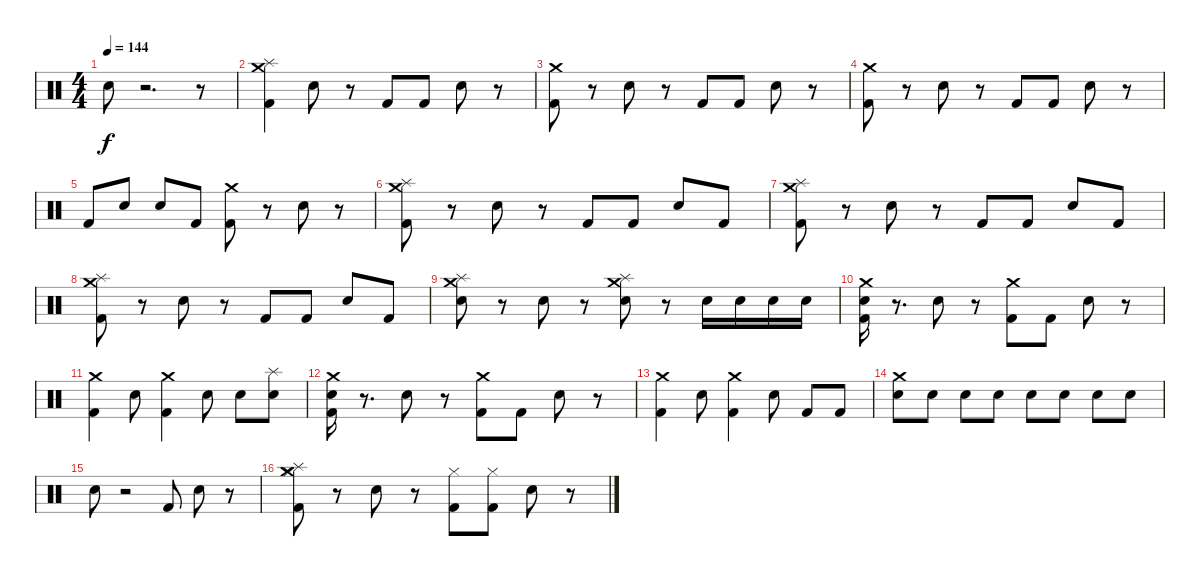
\track "" {instrument percussion}
\staff {score}
\articulation defaults
\ts (4 4)
\tempo 144
\clef neutral
\ks c "Electric Snare (hit)".8{dy f}
r.2{d} r.8 |
("Splash (hit)" "Crash medium (hit)" "Kick (hit) 2").4 "Snare (hit) 2".8 r.8 "Kick (hit) 2".8 "Kick (hit) 2".8 "Snare (hit) 2".8 r.8 |
("Crash medium (hit)" "Kick (hit) 2").8 r.8 "Snare (hit) 2".8 r.8 "Kick (hit) 2".8 "Kick (hit) 2".8 "Snare (hit) 2".8 r.8 |
("Crash medium (hit)" "Kick (hit) 2").8 r.8 "Snare (hit) 2".8 r.8 "Kick (hit) 2".8 "Kick (hit) 2".8 "Snare (hit) 2".8 r.8 |
"Kick (hit) 2".8 "Snare (hit) 2".8 "Snare (hit) 2".8 "Kick (hit) 2".8 ("Crash medium (hit)" "Kick (hit) 2").8 r.8 "Snare (hit) 2".8 r.8 |
("Splash (hit)" "Crash medium (hit)" "Kick (hit) 2").8 r.8 "Snare (hit) 2".8 r.8 "Kick (hit) 2".8 "Kick (hit) 2".8 "Snare (hit) 2".8 "Kick (hit) 2".8 |
("Crash medium (hit)" "Splash (hit)" "Kick (hit) 2").8 r.8 "Snare (hit) 2".8 r.8 "Kick (hit) 2".8 "Kick (hit) 2".8 "Snare (hit) 2".8 "Kick (hit) 2".8 |
("Crash medium (hit)" "Splash (hit)" "Kick (hit) 2").8 r.8 "Snare (hit) 2".8 r.8 "Kick (hit) 2".8 "Kick (hit) 2".8 "Snare (hit) 2".8 "Kick (hit) 2".8 |
("Crash medium (hit)" "Splash (hit)" "Snare (hit) 2").8 r.8 "Snare (hit) 2".8 r.8 ("Crash medium (hit)" "Splash (hit)" "Snare (hit) 2").8 r.8 "Snare (hit) 2".16 "Snare (hit) 2".16 "Snare (hit) 2".16 "Snare (hit) 2".16 |
("Crash medium (hit)" "Kick (hit) 2" "Snare (hit) 2").16 r.8{d} "Snare (hit) 2".8 r.8 ("Crash medium (hit)" "Kick (hit) 2").8 "Kick (hit) 2".8 "Snare (hit) 2".8 r.8 |
("Crash medium (hit)" "Kick (hit) 2").4 "Snare (hit) 2".8 ("Crash medium (hit)" "Kick (hit) 2").4 "Snare (hit) 2".8 "Snare (hit) 2".8 ("Splash (hit)" "Snare (hit) 2").8 |
("Crash medium (hit)" "Kick (hit) 2" "Snare (hit) 2").16 r.8{d} "Snare (hit) 2".8 r.8 ("Crash medium (hit)" "Kick (hit) 2").8 "Kick (hit) 2".8 "Snare (hit) 2".8 r.8 |
("Crash medium (hit)" "Kick (hit) 2").4 "Snare (hit) 2".8 ("Crash medium (hit)" "Kick (hit) 2").4 "Snare (hit) 2".8 "Kick (hit) 2".8 "Kick (hit) 2".8 |
("Crash medium (hit)" "Snare (hit) 2").8 "Snare (hit) 2".8 "Snare (hit) 2".8 "Snare (hit) 2".8 "Snare (hit) 2".8 "Snare (hit) 2".8 "Snare (hit) 2".8 "Snare (hit) 2".8 |
"Snare (hit) 2".8 r.2 "Kick (hit) 2".8 "Electric Snare (hit)".8 r.8 |
("Hi-Hat (closed)" "Splash (hit)" "Crash medium (hit)" "Kick (hit) 2").8 r.8 "Snare (hit) 2".8 r.8 ("Hi-Hat (closed)" "Kick (hit) 2").8 ("Hi-Hat (closed)" "Kick (hit) 2").8 "Snare (hit) 2".8 r.8
